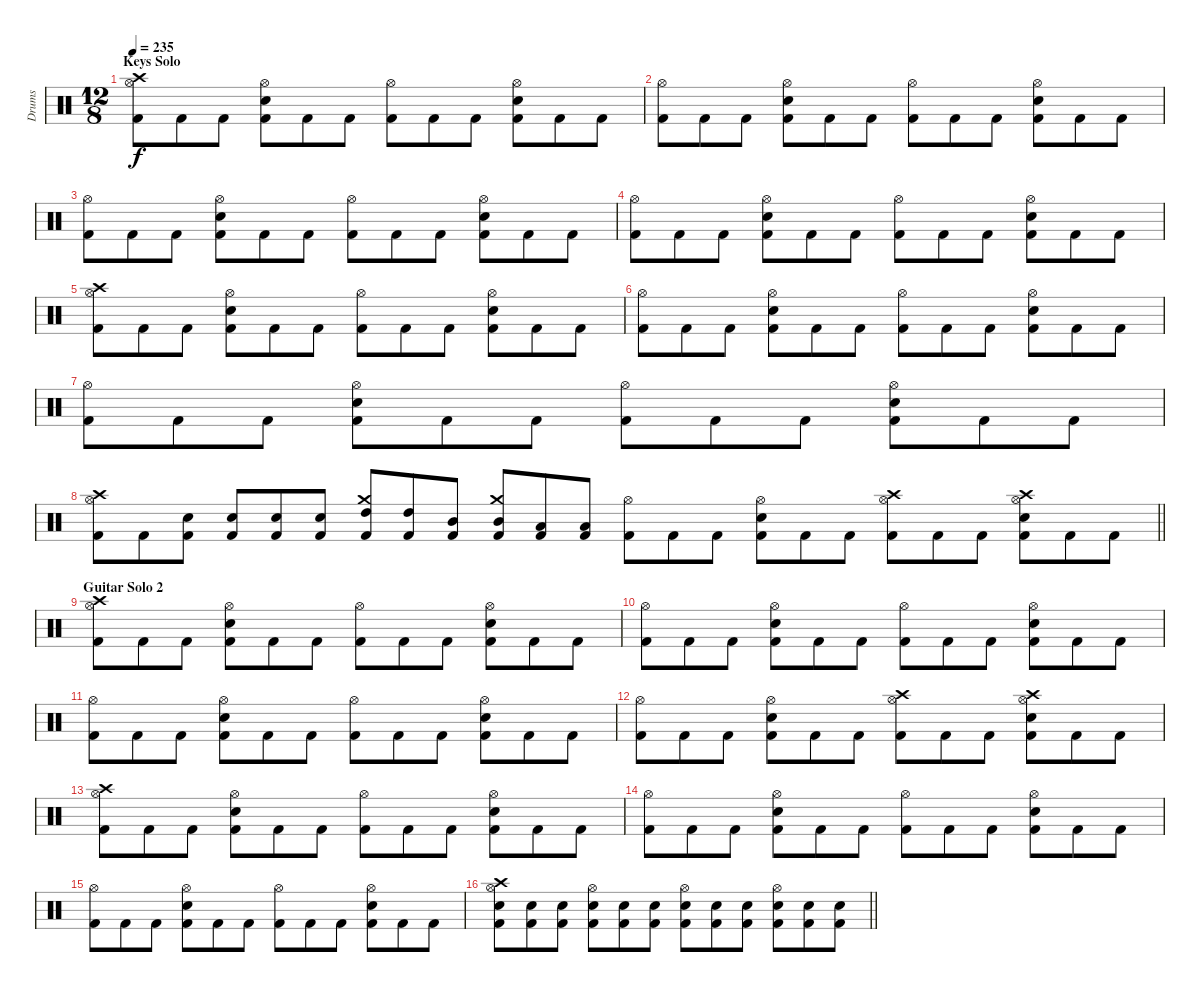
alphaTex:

\track ("Drums" "Drums") {instrument percussion}
\staff {score}
\articulation defaults
\ts (12 8)
\section ("" "Keys Solo")
\tempo 235
\clef neutral
\ks c
("Crash high (hit)" "Hi-Hat (open)" "Kick (hit) 2").8{dy f} "Kick (hit) 2".8 "Kick (hit) 2".8 ("Hi-Hat (open)" "Snare (hit) 2" "Kick (hit) 2").8 "Kick (hit) 2".8 "Kick (hit) 2".8 ("Hi-Hat (open)" "Kick (hit) 2").8 "Kick (hit) 2".8 "Kick (hit) 2".8 ("Hi-Hat (open)" "Snare (hit) 2" "Kick (hit) 2").8 "Kick (hit) 2".8 "Kick (hit) 2".8 |
("Hi-Hat (open)" "Kick (hit) 2").8 "Kick (hit) 2".8 "Kick (hit) 2".8 ("Hi-Hat (open)" "Snare (hit) 2" "Kick (hit) 2").8 "Kick (hit) 2".8 "Kick (hit) 2".8 ("Hi-Hat (open)" "Kick (hit) 2").8 "Kick (hit) 2".8 "Kick (hit) 2".8 ("Hi-Hat (open)" "Snare (hit) 2" "Kick (hit) 2").8 "Kick (hit) 2".8 "Kick (hit) 2".8 |
("Hi-Hat (open)" "Kick (hit) 2").8 "Kick (hit) 2".8 "Kick (hit) 2".8 ("Hi-Hat (open)" "Snare (hit) 2" "Kick (hit) 2").8 "Kick (hit) 2".8 "Kick (hit) 2".8 ("Hi-Hat (open)" "Kick (hit) 2").8 "Kick (hit) 2".8 "Kick (hit) 2".8 ("Hi-Hat (open)" "Snare (hit) 2" "Kick (hit) 2").8 "Kick (hit) 2".8 "Kick (hit) 2".8 |
("Hi-Hat (open)" "Kick (hit) 2").8 "Kick (hit) 2".8 "Kick (hit) 2".8 ("Hi-Hat (open)" "Snare (hit) 2" "Kick (hit) 2").8 "Kick (hit) 2".8 "Kick (hit) 2".8 ("Hi-Hat (open)" "Kick (hit) 2").8 "Kick (hit) 2".8 "Kick (hit) 2".8 ("Hi-Hat (open)" "Snare (hit) 2" "Kick (hit) 2").8 "Kick (hit) 2".8 "Kick (hit) 2".8 |
("Crash high (hit)" "Hi-Hat (open)" "Kick (hit) 2").8 "Kick (hit) 2".8 "Kick (hit) 2".8 ("Hi-Hat (open)" "Snare (hit) 2" "Kick (hit) 2").8 "Kick (hit) 2".8 "Kick (hit) 2".8 ("Hi-Hat (open)" "Kick (hit) 2").8 "Kick (hit) 2".8 "Kick (hit) 2".8 ("Hi-Hat (open)" "Snare (hit) 2" "Kick (hit) 2").8 "Kick (hit) 2".8 "Kick (hit) 2".8 |
("Hi-Hat (open)" "Kick (hit) 2").8 "Kick (hit) 2".8 "Kick (hit) 2".8 ("Hi-Hat (open)" "Snare (hit) 2" "Kick (hit) 2").8 "Kick (hit) 2".8 "Kick (hit) 2".8 ("Hi-Hat (open)" "Kick (hit) 2").8 "Kick (hit) 2".8 "Kick (hit) 2".8 ("Hi-Hat (open)" "Snare (hit) 2" "Kick (hit) 2").8 "Kick (hit) 2".8 "Kick (hit) 2".8 |
("Hi-Hat (open)" "Kick (hit) 2").8 "Kick (hit) 2".8 "Kick (hit) 2".8 ("Hi-Hat (open)" "Snare (hit) 2" "Kick (hit) 2").8 "Kick (hit) 2".8 "Kick (hit) 2".8 ("Hi-Hat (open)" "Kick (hit) 2").8 "Kick (hit) 2".8 "Kick (hit) 2".8 ("Hi-Hat (open)" "Snare (hit) 2" "Kick (hit) 2").8 "Kick (hit) 2".8 "Kick (hit) 2".8 |
\barLineRight lightlight
("Crash high (hit)" "Hi-Hat (open)" "Kick (hit) 2").8 "Kick (hit) 2".8 ("Snare (hit) 2" "Kick (hit) 2").8 ("Snare (hit) 2" "Kick (hit) 2").8 ("Snare (hit) 2" "Kick (hit) 2").8 ("Snare (hit) 2" "Kick (hit) 2").8 ("Crash medium (hit)" "High Tom (hit)" "Kick (hit) 2").8 ("High Tom (hit)" "Kick (hit) 2").8 ("Mid Tom (hit)" "Kick (hit) 2").8 ("Crash medium (hit)" "Mid Tom (hit)" "Kick (hit) 2").8 ("Low Tom (hit)" "Kick (hit) 2").8 ("Low Tom (hit)" "Kick (hit) 2").8 ("Hi-Hat (open)" "Kick (hit) 2").8 "Kick (hit) 2".8 "Kick (hit) 2".8 ("Hi-Hat (open)" "Snare (hit) 2" "Kick (hit) 2").8 "Kick (hit) 2".8 "Kick (hit) 2".8 ("Crash high (hit)" "Hi-Hat (open)" "Kick (hit) 2").8 "Kick (hit) 2".8 "Kick (hit) 2".8 ("Crash high (hit)" "Hi-Hat (open)" "Snare (hit) 2" "Kick (hit) 2").8 "Kick (hit) 2".8 "Kick (hit) 2".8 |
\section ("" "Guitar Solo 2")
("Crash high (hit)" "Hi-Hat (open)" "Kick (hit) 2").8 "Kick (hit) 2".8 "Kick (hit) 2".8 ("Hi-Hat (open)" "Snare (hit) 2" "Kick (hit) 2").8 "Kick (hit) 2".8 "Kick (hit) 2".8 ("Hi-Hat (open)" "Kick (hit) 2").8 "Kick (hit) 2".8 "Kick (hit) 2".8 ("Hi-Hat (open)" "Snare (hit) 2" "Kick (hit) 2").8 "Kick (hit) 2".8 "Kick (hit) 2".8 |
("Hi-Hat (open)" "Kick (hit) 2").8 "Kick (hit) 2".8 "Kick (hit) 2".8 ("Hi-Hat (open)" "Snare (hit) 2" "Kick (hit) 2").8 "Kick (hit) 2".8 "Kick (hit) 2".8 ("Hi-Hat (open)" "Kick (hit) 2").8 "Kick (hit) 2".8 "Kick (hit) 2".8 ("Hi-Hat (open)" "Snare (hit) 2" "Kick (hit) 2").8 "Kick (hit) 2".8 "Kick (hit) 2".8 |
("Hi-Hat (open)" "Kick (hit) 2").8 "Kick (hit) 2".8 "Kick (hit) 2".8 ("Hi-Hat (open)" "Snare (hit) 2" "Kick (hit) 2").8 "Kick (hit) 2".8 "Kick (hit) 2".8 ("Hi-Hat (open)" "Kick (hit) 2").8 "Kick (hit) 2".8 "Kick (hit) 2".8 ("Hi-Hat (open)" "Snare (hit) 2" "Kick (hit) 2").8 "Kick (hit) 2".8 "Kick (hit) 2".8 |
("Hi-Hat (open)" "Kick (hit) 2").8 "Kick (hit) 2".8 "Kick (hit) 2".8 ("Hi-Hat (open)" "Snare (hit) 2" "Kick (hit) 2").8 "Kick (hit) 2".8 "Kick (hit) 2".8 ("Crash high (hit)" "Hi-Hat (open)" "Kick (hit) 2").8 "Kick (hit) 2".8 "Kick (hit) 2".8 ("Crash high (hit)" "Hi-Hat (open)" "Snare (hit) 2" "Kick (hit) 2").8 "Kick (hit) 2".8 "Kick (hit) 2".8 |
("Crash high (hit)" "Hi-Hat (open)" "Kick (hit) 2").8 "Kick (hit) 2".8 "Kick (hit) 2".8 ("Hi-Hat (open)" "Snare (hit) 2" "Kick (hit) 2").8 "Kick (hit) 2".8 "Kick (hit) 2".8 ("Hi-Hat (open)" "Kick (hit) 2").8 "Kick (hit) 2".8 "Kick (hit) 2".8 ("Hi-Hat (open)" "Snare (hit) 2" "Kick (hit) 2").8 "Kick (hit) 2".8 "Kick (hit) 2".8 |
("Hi-Hat (open)" "Kick (hit) 2").8 "Kick (hit) 2".8 "Kick (hit) 2".8 ("Hi-Hat (open)" "Snare (hit) 2" "Kick (hit) 2").8 "Kick (hit) 2".8 "Kick (hit) 2".8 ("Hi-Hat (open)" "Kick (hit) 2").8 "Kick (hit) 2".8 "Kick (hit) 2".8 ("Hi-Hat (open)" "Snare (hit) 2" "Kick (hit) 2").8 "Kick (hit) 2".8 "Kick (hit) 2".8 |
("Hi-Hat (open)" "Kick (hit) 2").8 "Kick (hit) 2".8 "Kick (hit) 2".8 ("Hi-Hat (open)" "Snare (hit) 2" "Kick (hit) 2").8 "Kick (hit) 2".8 "Kick (hit) 2".8 ("Hi-Hat (open)" "Kick (hit) 2").8 "Kick (hit) 2".8 "Kick (hit) 2".8 ("Hi-Hat (open)" "Snare (hit) 2" "Kick (hit) 2").8 "Kick (hit) 2".8 "Kick (hit) 2".8 |
\barLineRight lightlight
("Crash high (hit)" "Hi-Hat (open)" "Snare (hit) 2" "Kick (hit) 2").8 ("Snare (hit) 2" "Kick (hit) 2").8 ("Snare (hit) 2" "Kick (hit) 2").8 ("Hi-Hat (open)" "Snare (hit) 2" "Kick (hit) 2").8 ("Snare (hit) 2" "Kick (hit) 2").8 ("Snare (hit) 2" "Kick (hit) 2").8 ("Hi-Hat (open)" "Snare (hit) 2" "Kick (hit) 2").8 ("Snare (hit) 2" "Kick (hit) 2").8 ("Snare (hit) 2" "Kick (hit) 2").8 ("Hi-Hat (open)" "Snare (hit) 2" "Kick (hit) 2").8 ("Snare (hit) 2" "Kick (hit) 2").8 ("Snare (hit) 2" "Kick (hit) 2").8
